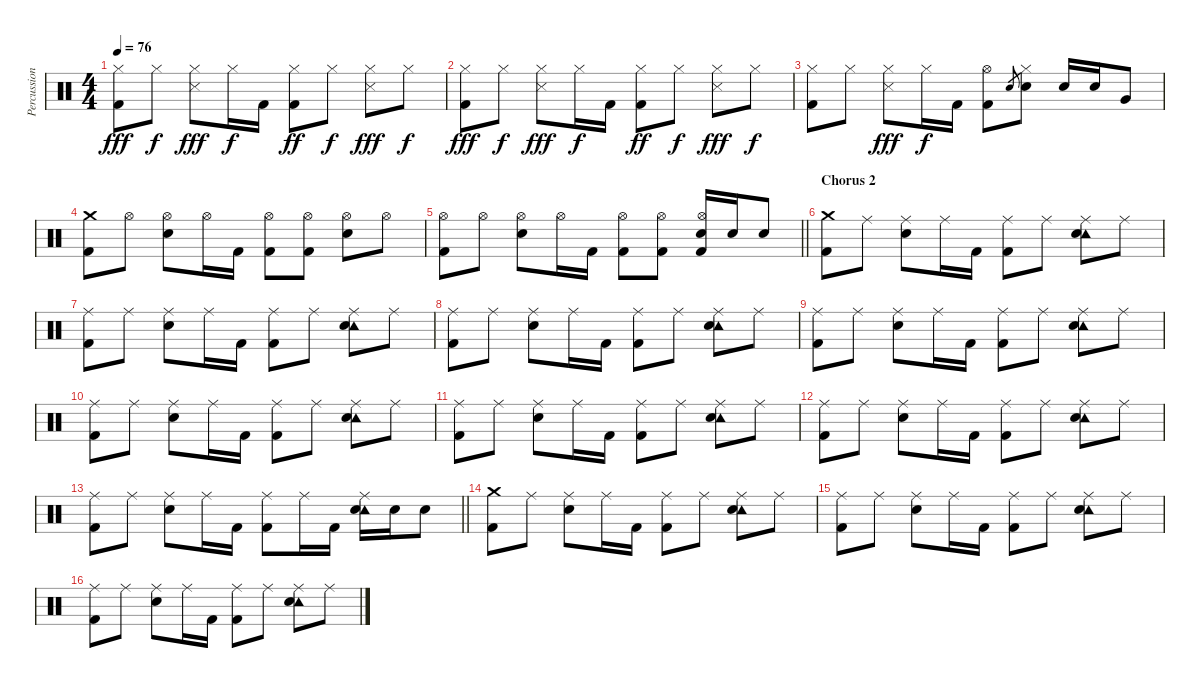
\track ("Percussion" "Percussion") {instrument percussion}
\staff {score}
\articulation defaults
\ts (4 4)
\tempo 76
\clef neutral
\ks c
("Hi-Hat (closed)" "Kick (hit) 2").8{dy fff} "Hi-Hat (closed)".8{dy f} ("Hi-Hat (closed)" "Metronome (hit)").8{dy fff} "Hi-Hat (closed)".16{dy f} "Kick (hit) 2".16 ("Hi-Hat (closed)" "Kick (hit) 2").8{dy ff} "Hi-Hat (closed)".8{dy f} ("Hi-Hat (closed)" "Metronome (hit)").8{dy fff} "Hi-Hat (closed)".8{dy f} |
("Hi-Hat (closed)" "Kick (hit) 2").8{dy fff} "Hi-Hat (closed)".8{dy f} ("Hi-Hat (closed)" "Metronome (hit)").8{dy fff} "Hi-Hat (closed)".16{dy f} "Kick (hit) 2".16 ("Hi-Hat (closed)" "Kick (hit) 2").8{dy ff} "Hi-Hat (closed)".8{dy f} ("Hi-Hat (closed)" "Metronome (hit)").8{dy fff} "Hi-Hat (closed)".8{dy f} |
("Hi-Hat (closed)" "Kick (hit) 2").8 "Hi-Hat (closed)".8 ("Hi-Hat (closed)" "Metronome (hit)").8{dy fff} "Hi-Hat (closed)".16{dy f} "Kick (hit) 2".16 ("Hi-Hat (open)" "Kick (hit) 2").8 "Electric Snare (hit)".8{gr} ("Hi-Hat (closed)" "Electric Snare (hit)").8 "Electric Snare (hit)".16 "Electric Snare (hit)".16 "Very Low Tom (hit)".8 |
("Crash medium (hit)" "Kick (hit) 2").8 "Hi-Hat (open)".8 ("Hi-Hat (open)" "Electric Snare (hit)").8 "Hi-Hat (open)".16 "Kick (hit) 2".16 ("Hi-Hat (open)" "Kick (hit) 2").8 ("Hi-Hat (open)" "Kick (hit) 2").8 ("Hi-Hat (open)" "Electric Snare (hit)").8 "Hi-Hat (open)".8 |
\barLineRight lightlight
("Hi-Hat (open)" "Kick (hit) 2").8 "Hi-Hat (open)".8 ("Hi-Hat (open)" "Electric Snare (hit)").8 "Hi-Hat (open)".16 "Kick (hit) 2".16 ("Hi-Hat (open)" "Kick (hit) 2").8 ("Hi-Hat (open)" "Kick (hit) 2").8 ("Hi-Hat (open)" "Electric Snare (hit)" "Kick (hit) 2").16 "Electric Snare (hit)".16 "Electric Snare (hit)".8 |
\section ("" "Chorus 2")
("Crash medium (hit)" "Kick (hit) 2").8 "Ride (middle)".8 ("Ride (middle)" "Electric Snare (hit)").8 "Ride (middle)".16 "Kick (hit) 2".16 ("Ride (middle)" "Kick (hit) 2").8 "Ride (middle)".8 ("Ride (middle)" "Tambourine (hit)" "Electric Snare (hit)").8 "Ride (middle)".8 |
("Ride (middle)" "Kick (hit) 2").8 "Ride (middle)".8 ("Ride (middle)" "Electric Snare (hit)").8 "Ride (middle)".16 "Kick (hit) 2".16 ("Ride (middle)" "Kick (hit) 2").8 "Ride (middle)".8 ("Ride (middle)" "Tambourine (hit)" "Electric Snare (hit)").8 "Ride (middle)".8 |
("Ride (middle)" "Kick (hit) 2").8 "Ride (middle)".8 ("Ride (middle)" "Electric Snare (hit)").8 "Ride (middle)".16 "Kick (hit) 2".16 ("Ride (middle)" "Kick (hit) 2").8 "Ride (middle)".8 ("Ride (middle)" "Tambourine (hit)" "Electric Snare (hit)").8 "Ride (middle)".8 |
("Ride (middle)" "Kick (hit) 2").8 "Ride (middle)".8 ("Ride (middle)" "Electric Snare (hit)").8 "Ride (middle)".16 "Kick (hit) 2".16 ("Ride (middle)" "Kick (hit) 2").8 "Ride (middle)".8 ("Ride (middle)" "Tambourine (hit)" "Electric Snare (hit)").8 "Ride (middle)".8 |
("Ride (middle)" "Kick (hit) 2").8 "Ride (middle)".8 ("Ride (middle)" "Electric Snare (hit)").8 "Ride (middle)".16 "Kick (hit) 2".16 ("Ride (middle)" "Kick (hit) 2").8 "Ride (middle)".8 ("Ride (middle)" "Tambourine (hit)" "Electric Snare (hit)").8 "Ride (middle)".8 |
("Ride (middle)" "Kick (hit) 2").8 "Ride (middle)".8 ("Ride (middle)" "Electric Snare (hit)").8 "Ride (middle)".16 "Kick (hit) 2".16 ("Ride (middle)" "Kick (hit) 2").8 "Ride (middle)".8 ("Ride (middle)" "Tambourine (hit)" "Electric Snare (hit)").8 "Ride (middle)".8 |
("Ride (middle)" "Kick (hit) 2").8 "Ride (middle)".8 ("Ride (middle)" "Electric Snare (hit)").8 "Ride (middle)".16 "Kick (hit) 2".16 ("Ride (middle)" "Kick (hit) 2").8 "Ride (middle)".8 ("Ride (middle)" "Tambourine (hit)" "Electric Snare (hit)").8 "Ride (middle)".8 |
\barLineRight lightlight
("Ride (middle)" "Kick (hit) 2").8 "Ride (middle)".8 ("Ride (middle)" "Electric Snare (hit)").8 "Ride (middle)".16 "Kick (hit) 2".16 ("Ride (middle)" "Kick (hit) 2").8 "Ride (middle)".16 "Kick (hit) 2".16 ("Ride (middle)" "Tambourine (hit)" "Electric Snare (hit)").16 "Electric Snare (hit)".16 "Electric Snare (hit)".8 |
("Crash medium (hit)" "Kick (hit) 2").8 "Ride (middle)".8 ("Ride (middle)" "Electric Snare (hit)").8 "Ride (middle)".16 "Kick (hit) 2".16 ("Ride (middle)" "Kick (hit) 2").8 "Ride (middle)".8 ("Ride (middle)" "Tambourine (hit)" "Electric Snare (hit)").8 "Ride (middle)".8 |
("Ride (middle)" "Kick (hit) 2").8 "Ride (middle)".8 ("Ride (middle)" "Electric Snare (hit)").8 "Ride (middle)".16 "Kick (hit) 2".16 ("Ride (middle)" "Kick (hit) 2").8 "Ride (middle)".8 ("Ride (middle)" "Tambourine (hit)" "Electric Snare (hit)").8 "Ride (middle)".8 |
("Ride (middle)" "Kick (hit) 2").8 "Ride (middle)".8 ("Ride (middle)" "Electric Snare (hit)").8 "Ride (middle)".16 "Kick (hit) 2".16 ("Ride (middle)" "Kick (hit) 2").8 "Ride (middle)".8 ("Ride (middle)" "Tambourine (hit)" "Electric Snare (hit)").8 "Ride (middle)".8
